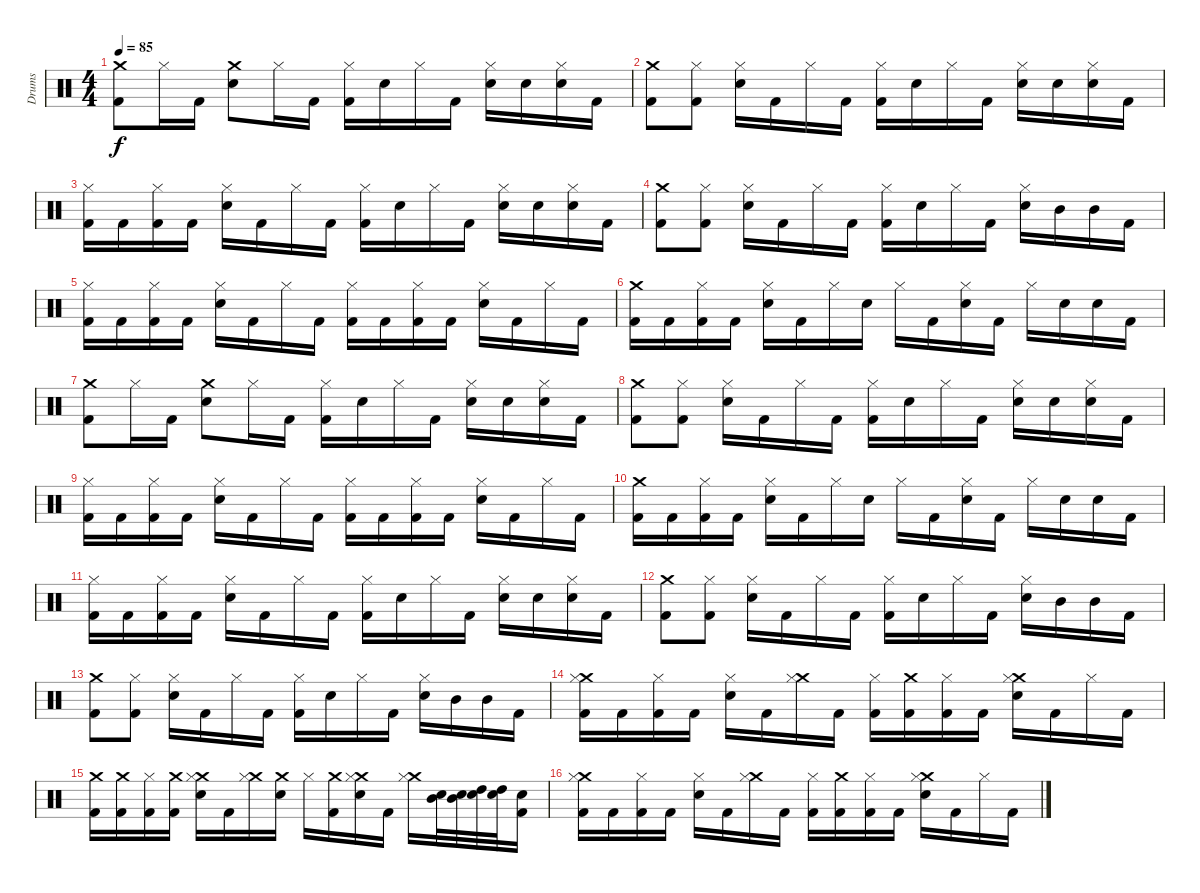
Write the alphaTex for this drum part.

\track ("Drums" "Drums") {instrument percussion}
\staff {score}
\articulation defaults
\ts (4 4)
\tempo 85
\clef neutral
\ks c
("Crash medium (hit)" "Kick (hit) 2").8{dy f} "Hi-Hat (closed)".16 "Kick (hit) 2".16 ("Crash medium (hit)" "Snare (hit) 2").8 "Hi-Hat (closed)".16 "Kick (hit) 2".16 ("Hi-Hat (closed)" "Kick (hit) 2").16 "Snare (hit) 2".16 "Hi-Hat (closed)".16 "Kick (hit) 2".16 ("Hi-Hat (closed)" "Snare (hit) 2").16 "Snare (hit) 2".16 ("Hi-Hat (closed)" "Snare (hit) 2").16 "Kick (hit) 2".16 |
("Crash medium (hit)" "Kick (hit) 2").8 ("Hi-Hat (closed)" "Kick (hit) 2").8 ("Hi-Hat (closed)" "Snare (hit) 2").16 "Kick (hit) 2".16 "Hi-Hat (closed)".16 "Kick (hit) 2".16 ("Hi-Hat (closed)" "Kick (hit) 2").16 "Snare (hit) 2".16 "Hi-Hat (closed)".16 "Kick (hit) 2".16 ("Hi-Hat (closed)" "Snare (hit) 2").16 "Snare (hit) 2".16 ("Hi-Hat (closed)" "Snare (hit) 2").16 "Kick (hit) 2".16 |
("Hi-Hat (closed)" "Kick (hit) 2").16 "Kick (hit) 2".16 ("Hi-Hat (closed)" "Kick (hit) 2").16 "Kick (hit) 2".16 ("Hi-Hat (closed)" "Snare (hit) 2").16 "Kick (hit) 2".16 "Hi-Hat (closed)".16 "Kick (hit) 2".16 ("Hi-Hat (closed)" "Kick (hit) 2").16 "Snare (hit) 2".16 "Hi-Hat (closed)".16 "Kick (hit) 2".16 ("Hi-Hat (closed)" "Snare (hit) 2").16 "Snare (hit) 2".16 ("Hi-Hat (closed)" "Snare (hit) 2").16 "Kick (hit) 2".16 |
("Crash medium (hit)" "Kick (hit) 2").8 ("Hi-Hat (closed)" "Kick (hit) 2").8 ("Hi-Hat (closed)" "Snare (hit) 2").16 "Kick (hit) 2".16 "Hi-Hat (closed)".16 "Kick (hit) 2".16 ("Hi-Hat (closed)" "Kick (hit) 2").16 "Snare (hit) 2".16 "Hi-Hat (closed)".16 "Kick (hit) 2".16 ("Hi-Hat (closed)" "Snare (hit) 2").16 "Mid Tom (hit)".16 "Mid Tom (hit)".16 "Kick (hit) 2".16 |
("Hi-Hat (closed)" "Kick (hit) 2").16 "Kick (hit) 2".16 ("Hi-Hat (closed)" "Kick (hit) 2").16 "Kick (hit) 2".16 ("Hi-Hat (closed)" "Snare (hit) 2").16 "Kick (hit) 2".16 "Hi-Hat (closed)".16 "Kick (hit) 2".16 ("Hi-Hat (closed)" "Kick (hit) 2").16 "Kick (hit) 2".16 ("Hi-Hat (closed)" "Kick (hit) 2").16 "Kick (hit) 2".16 ("Hi-Hat (closed)" "Snare (hit) 2").16 "Kick (hit) 2".16 "Hi-Hat (closed)".16 "Kick (hit) 2".16 |
("Crash medium (hit)" "Kick (hit) 2").16 "Kick (hit) 2".16 ("Hi-Hat (closed)" "Kick (hit) 2").16 "Kick (hit) 2".16 ("Hi-Hat (closed)" "Snare (hit) 2").16 "Kick (hit) 2".16 "Hi-Hat (closed)".16 "Snare (hit) 2".16 "Hi-Hat (closed)".16 "Kick (hit) 2".16 ("Hi-Hat (closed)" "Snare (hit) 2").16 "Kick (hit) 2".16 "Hi-Hat (closed)".16 "Snare (hit) 2".16 "Snare (hit) 2".16 "Kick (hit) 2".16 |
("Crash medium (hit)" "Kick (hit) 2").8 "Hi-Hat (closed)".16 "Kick (hit) 2".16 ("Crash medium (hit)" "Snare (hit) 2").8 "Hi-Hat (closed)".16 "Kick (hit) 2".16 ("Hi-Hat (closed)" "Kick (hit) 2").16 "Snare (hit) 2".16 "Hi-Hat (closed)".16 "Kick (hit) 2".16 ("Hi-Hat (closed)" "Snare (hit) 2").16 "Snare (hit) 2".16 ("Hi-Hat (closed)" "Snare (hit) 2").16 "Kick (hit) 2".16 |
("Crash medium (hit)" "Kick (hit) 2").8 ("Hi-Hat (closed)" "Kick (hit) 2").8 ("Hi-Hat (closed)" "Snare (hit) 2").16 "Kick (hit) 2".16 "Hi-Hat (closed)".16 "Kick (hit) 2".16 ("Hi-Hat (closed)" "Kick (hit) 2").16 "Snare (hit) 2".16 "Hi-Hat (closed)".16 "Kick (hit) 2".16 ("Hi-Hat (closed)" "Snare (hit) 2").16 "Snare (hit) 2".16 ("Hi-Hat (closed)" "Snare (hit) 2").16 "Kick (hit) 2".16 |
("Hi-Hat (closed)" "Kick (hit) 2").16 "Kick (hit) 2".16 ("Hi-Hat (closed)" "Kick (hit) 2").16 "Kick (hit) 2".16 ("Hi-Hat (closed)" "Snare (hit) 2").16 "Kick (hit) 2".16 "Hi-Hat (closed)".16 "Kick (hit) 2".16 ("Hi-Hat (closed)" "Kick (hit) 2").16 "Kick (hit) 2".16 ("Hi-Hat (closed)" "Kick (hit) 2").16 "Kick (hit) 2".16 ("Hi-Hat (closed)" "Snare (hit) 2").16 "Kick (hit) 2".16 "Hi-Hat (closed)".16 "Kick (hit) 2".16 |
("Crash medium (hit)" "Kick (hit) 2").16 "Kick (hit) 2".16 ("Hi-Hat (closed)" "Kick (hit) 2").16 "Kick (hit) 2".16 ("Hi-Hat (closed)" "Snare (hit) 2").16 "Kick (hit) 2".16 "Hi-Hat (closed)".16 "Snare (hit) 2".16 "Hi-Hat (closed)".16 "Kick (hit) 2".16 ("Hi-Hat (closed)" "Snare (hit) 2").16 "Kick (hit) 2".16 "Hi-Hat (closed)".16 "Snare (hit) 2".16 "Snare (hit) 2".16 "Kick (hit) 2".16 |
("Hi-Hat (closed)" "Kick (hit) 2").16 "Kick (hit) 2".16 ("Hi-Hat (closed)" "Kick (hit) 2").16 "Kick (hit) 2".16 ("Hi-Hat (closed)" "Snare (hit) 2").16 "Kick (hit) 2".16 "Hi-Hat (closed)".16 "Kick (hit) 2".16 ("Hi-Hat (closed)" "Kick (hit) 2").16 "Snare (hit) 2".16 "Hi-Hat (closed)".16 "Kick (hit) 2".16 ("Hi-Hat (closed)" "Snare (hit) 2").16 "Snare (hit) 2".16 ("Hi-Hat (closed)" "Snare (hit) 2").16 "Kick (hit) 2".16 |
("Crash medium (hit)" "Kick (hit) 2").8 ("Hi-Hat (closed)" "Kick (hit) 2").8 ("Hi-Hat (closed)" "Snare (hit) 2").16 "Kick (hit) 2".16 "Hi-Hat (closed)".16 "Kick (hit) 2".16 ("Hi-Hat (closed)" "Kick (hit) 2").16 "Snare (hit) 2".16 "Hi-Hat (closed)".16 "Kick (hit) 2".16 ("Hi-Hat (closed)" "Snare (hit) 2").16 "Mid Tom (hit)".16 "Mid Tom (hit)".16 "Kick (hit) 2".16 |
("Crash medium (hit)" "Kick (hit) 2").8 ("Hi-Hat (closed)" "Kick (hit) 2").8 ("Hi-Hat (closed)" "Snare (hit) 2").16 "Kick (hit) 2".16 "Hi-Hat (closed)".16 "Kick (hit) 2".16 ("Hi-Hat (closed)" "Kick (hit) 2").16 "Snare (hit) 2".16 "Hi-Hat (closed)".16 "Kick (hit) 2".16 ("Hi-Hat (closed)" "Snare (hit) 2").16 "Mid Tom (hit)".16 "Mid Tom (hit)".16 "Kick (hit) 2".16 |
("Crash medium (hit)" "Hi-Hat (closed)" "Kick (hit) 2").16 "Kick (hit) 2".16 ("Hi-Hat (closed)" "Kick (hit) 2").16 "Kick (hit) 2".16 ("Hi-Hat (closed)" "Snare (hit) 2").16 "Kick (hit) 2".16 ("Crash medium (hit)" "Hi-Hat (closed)").16 "Kick (hit) 2".16 ("Hi-Hat (closed)" "Kick (hit) 2").16 ("Crash medium (hit)" "Kick (hit) 2").16 ("Hi-Hat (closed)" "Kick (hit) 2").16 "Kick (hit) 2".16 ("Crash medium (hit)" "Hi-Hat (closed)" "Snare (hit) 2").16 "Kick (hit) 2".16 "Hi-Hat (closed)".16 "Kick (hit) 2".16 |
("Crash medium (hit)" "Kick (hit) 2").16 ("Crash medium (hit)" "Kick (hit) 2").16 ("Hi-Hat (closed)" "Kick (hit) 2").16 ("Crash medium (hit)" "Kick (hit) 2").16 ("Crash medium (hit)" "Hi-Hat (closed)" "Snare (hit) 2").16 "Kick (hit) 2".16 ("Crash medium (hit)" "Hi-Hat (closed)").16 ("Crash medium (hit)" "Snare (hit) 2").16 "Hi-Hat (closed)".16 ("Crash medium (hit)" "Kick (hit) 2").16 ("Crash medium (hit)" "Hi-Hat (closed)" "Snare (hit) 2").16 "Kick (hit) 2".16 ("Crash medium (hit)" "Hi-Hat (closed)").16 ("Mid Tom (hit)" "Snare (hit) 2").32 ("Mid Tom (hit)" "Snare (hit) 2").32 ("High Tom (hit)" "Snare (hit) 2").32 ("High Tom (hit)" "Snare (hit) 2").32 ("Snare (hit) 2" "Kick (hit) 2").16 |
("Crash medium (hit)" "Hi-Hat (closed)" "Kick (hit) 2").16 "Kick (hit) 2".16 ("Hi-Hat (closed)" "Kick (hit) 2").16 "Kick (hit) 2".16 ("Hi-Hat (closed)" "Snare (hit) 2").16 "Kick (hit) 2".16 ("Crash medium (hit)" "Hi-Hat (closed)").16 "Kick (hit) 2".16 ("Hi-Hat (closed)" "Kick (hit) 2").16 ("Crash medium (hit)" "Kick (hit) 2").16 ("Hi-Hat (closed)" "Kick (hit) 2").16 "Kick (hit) 2".16 ("Crash medium (hit)" "Hi-Hat (closed)" "Snare (hit) 2").16 "Kick (hit) 2".16 "Hi-Hat (closed)".16 "Kick (hit) 2".16
